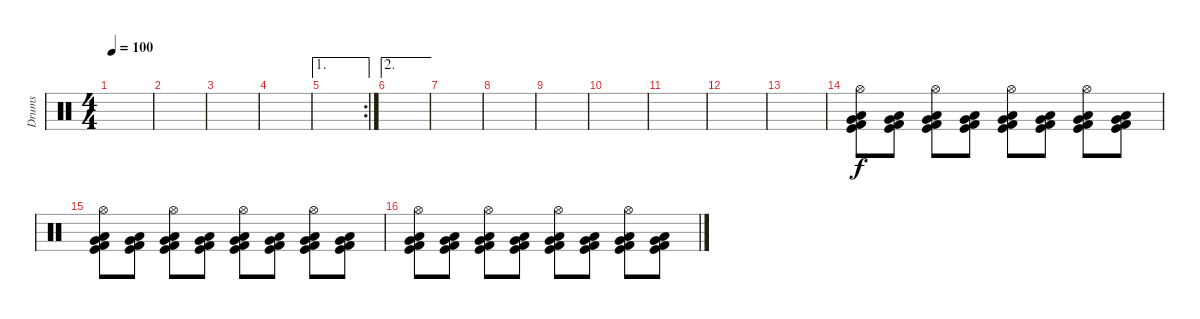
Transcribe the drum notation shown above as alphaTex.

\track ("Drums" "Drums") {instrument percussion}
\staff {score}
\articulation defaults
\ts (4 4)
\tempo 100
\clef neutral
\ks c
|
|
|
|
\ae 1
\rc 2
|
\ae 2
|
|
|
|
|
|
|
|
("Hi-Hat (open)" "Very Low Tom (hit)" "Low Floor Tom (hit)" "Kick (hit)" "Kick (hit) 2").8 ("Very Low Tom (hit)" "Low Floor Tom (hit)" "Kick (hit)" "Kick (hit) 2").8 ("Hi-Hat (open)" "Very Low Tom (hit)" "Low Floor Tom (hit)" "Kick (hit)" "Kick (hit) 2").8 ("Very Low Tom (hit)" "Low Floor Tom (hit)" "Kick (hit)" "Kick (hit) 2").8 ("Hi-Hat (open)" "Very Low Tom (hit)" "Low Floor Tom (hit)" "Kick (hit)" "Kick (hit) 2").8 ("Very Low Tom (hit)" "Low Floor Tom (hit)" "Kick (hit)" "Kick (hit) 2").8 ("Hi-Hat (open)" "Very Low Tom (hit)" "Low Floor Tom (hit)" "Kick (hit)" "Kick (hit) 2").8 ("Very Low Tom (hit)" "Low Floor Tom (hit)" "Kick (hit)" "Kick (hit) 2").8 |
("Hi-Hat (open)" "Very Low Tom (hit)" "Low Floor Tom (hit)" "Kick (hit)" "Kick (hit) 2").8 ("Very Low Tom (hit)" "Low Floor Tom (hit)" "Kick (hit)" "Kick (hit) 2").8 ("Hi-Hat (open)" "Very Low Tom (hit)" "Low Floor Tom (hit)" "Kick (hit)" "Kick (hit) 2").8 ("Very Low Tom (hit)" "Low Floor Tom (hit)" "Kick (hit)" "Kick (hit) 2").8 ("Hi-Hat (open)" "Very Low Tom (hit)" "Low Floor Tom (hit)" "Kick (hit)" "Kick (hit) 2").8 ("Very Low Tom (hit)" "Low Floor Tom (hit)" "Kick (hit)" "Kick (hit) 2").8 ("Hi-Hat (open)" "Very Low Tom (hit)" "Low Floor Tom (hit)" "Kick (hit)" "Kick (hit) 2").8 ("Very Low Tom (hit)" "Low Floor Tom (hit)" "Kick (hit)" "Kick (hit) 2").8 |
("Hi-Hat (open)" "Very Low Tom (hit)" "Low Floor Tom (hit)" "Kick (hit)" "Kick (hit) 2").8 ("Very Low Tom (hit)" "Low Floor Tom (hit)" "Kick (hit)" "Kick (hit) 2").8 ("Hi-Hat (open)" "Very Low Tom (hit)" "Low Floor Tom (hit)" "Kick (hit)" "Kick (hit) 2").8 ("Very Low Tom (hit)" "Low Floor Tom (hit)" "Kick (hit)" "Kick (hit) 2").8 ("Hi-Hat (open)" "Very Low Tom (hit)" "Low Floor Tom (hit)" "Kick (hit)" "Kick (hit) 2").8 ("Very Low Tom (hit)" "Low Floor Tom (hit)" "Kick (hit)" "Kick (hit) 2").8 ("Hi-Hat (open)" "Very Low Tom (hit)" "Low Floor Tom (hit)" "Kick (hit)" "Kick (hit) 2").8 ("Very Low Tom (hit)" "Low Floor Tom (hit)" "Kick (hit)" "Kick (hit) 2").8
